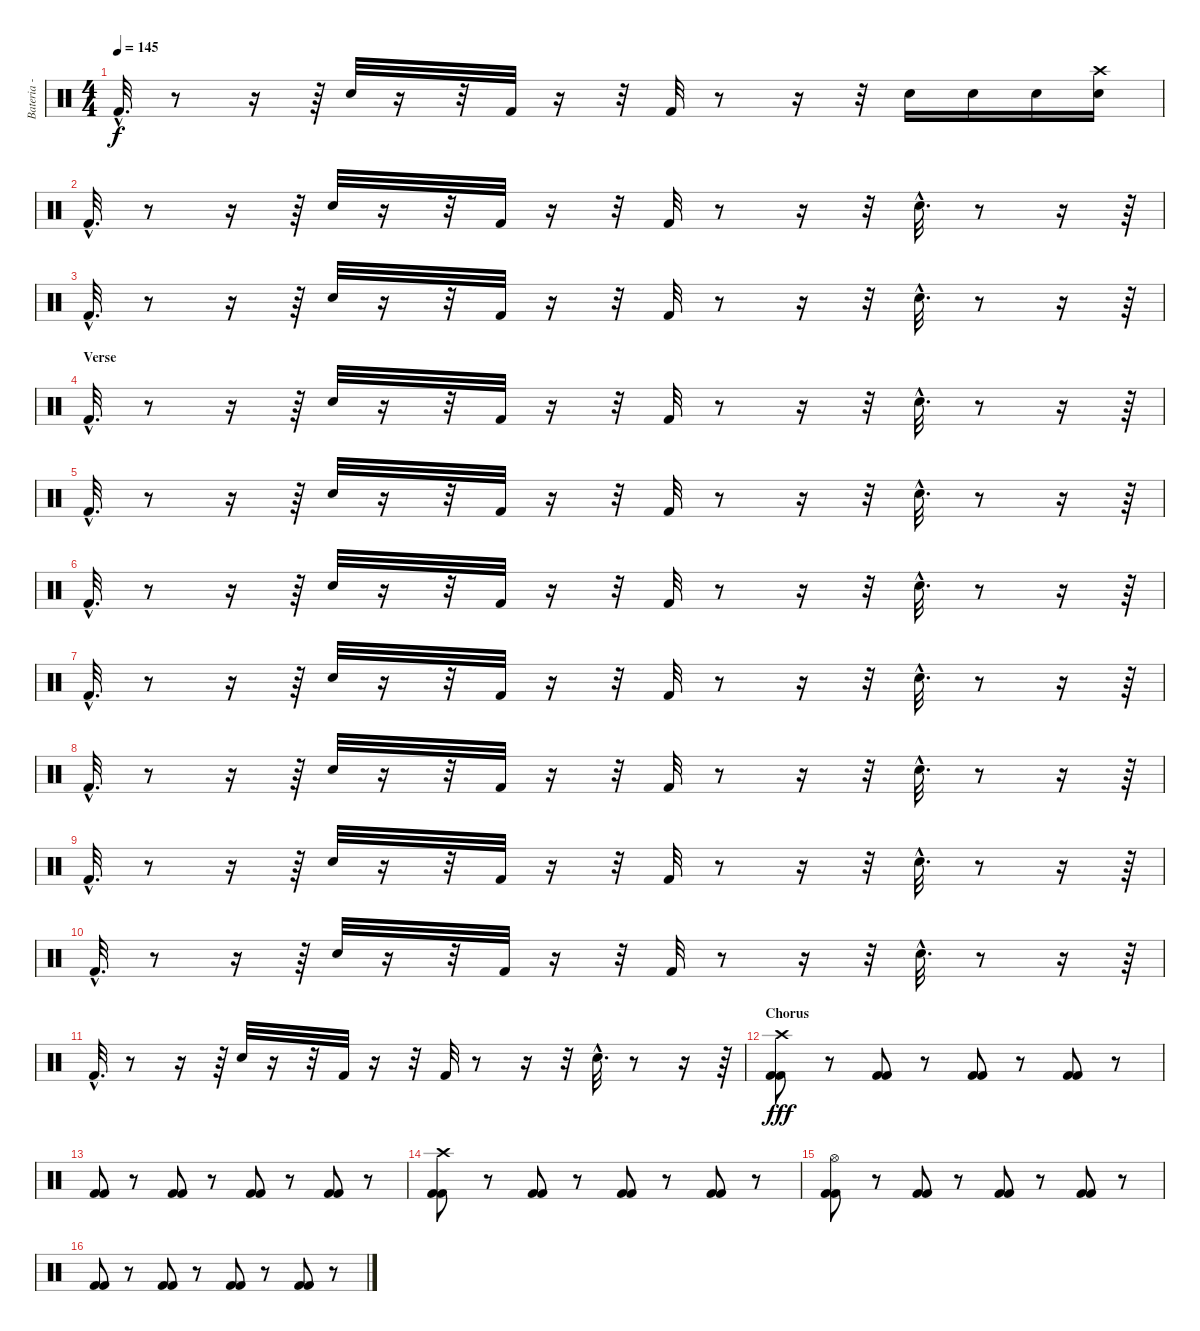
\track ("Bateria - Larzon" "Bateria - ") {instrument percussion}
\staff {score}
\articulation defaults
\ts (4 4)
\tempo 145
\clef neutral
\ks c "Kick (hit) 2"{hac}.32{d dy f}
r.8 r.16 r.64 "Snare (hit) 2".32 r.16 r.32 "Kick (hit) 2".32 r.16 r.32 "Kick (hit) 2".32 r.8 r.16 r.32 "Snare (hit) 2".16 "Snare (hit) 2".16 "Snare (hit) 2".16 ("Snare (hit) 2" "Crash high (hit)").16 |
"Kick (hit) 2"{hac}.32{d} r.8 r.16 r.64 "Snare (hit) 2".32 r.16 r.32 "Kick (hit) 2".32 r.16 r.32 "Kick (hit) 2".32 r.8 r.16 r.32 "Snare (hit) 2"{hac}.32{d} r.8 r.16 r.64 |
"Kick (hit) 2"{hac}.32{d} r.8 r.16 r.64 "Snare (hit) 2".32 r.16 r.32 "Kick (hit) 2".32 r.16 r.32 "Kick (hit) 2".32 r.8 r.16 r.32 "Snare (hit) 2"{hac}.32{d} r.8 r.16 r.64 |
\section ("" "Verse")
"Kick (hit) 2"{hac}.32{d} r.8 r.16 r.64 "Snare (hit) 2".32 r.16 r.32 "Kick (hit) 2".32 r.16 r.32 "Kick (hit) 2".32 r.8 r.16 r.32 "Snare (hit) 2"{hac}.32{d} r.8 r.16 r.64 |
"Kick (hit) 2"{hac}.32{d} r.8 r.16 r.64 "Snare (hit) 2".32 r.16 r.32 "Kick (hit) 2".32 r.16 r.32 "Kick (hit) 2".32 r.8 r.16 r.32 "Snare (hit) 2"{hac}.32{d} r.8 r.16 r.64 |
"Kick (hit) 2"{hac}.32{d} r.8 r.16 r.64 "Snare (hit) 2".32 r.16 r.32 "Kick (hit) 2".32 r.16 r.32 "Kick (hit) 2".32 r.8 r.16 r.32 "Snare (hit) 2"{hac}.32{d} r.8 r.16 r.64 |
"Kick (hit) 2"{hac}.32{d} r.8 r.16 r.64 "Snare (hit) 2".32 r.16 r.32 "Kick (hit) 2".32 r.16 r.32 "Kick (hit) 2".32 r.8 r.16 r.32 "Snare (hit) 2"{hac}.32{d} r.8 r.16 r.64 |
"Kick (hit) 2"{hac}.32{d} r.8 r.16 r.64 "Snare (hit) 2".32 r.16 r.32 "Kick (hit) 2".32 r.16 r.32 "Kick (hit) 2".32 r.8 r.16 r.32 "Snare (hit) 2"{hac}.32{d} r.8 r.16 r.64 |
"Kick (hit) 2"{hac}.32{d} r.8 r.16 r.64 "Snare (hit) 2".32 r.16 r.32 "Kick (hit) 2".32 r.16 r.32 "Kick (hit) 2".32 r.8 r.16 r.32 "Snare (hit) 2"{hac}.32{d} r.8 r.16 r.64 |
"Kick (hit) 2"{hac}.32{d} r.8 r.16 r.64 "Snare (hit) 2".32 r.16 r.32 "Kick (hit) 2".32 r.16 r.32 "Kick (hit) 2".32 r.8 r.16 r.32 "Snare (hit) 2"{hac}.32{d} r.8 r.16 r.64 |
"Kick (hit) 2"{hac}.32{d} r.8 r.16 r.64 "Snare (hit) 2".32 r.16 r.32 "Kick (hit) 2".32 r.16 r.32 "Kick (hit) 2".32 r.8 r.16 r.32 "Snare (hit) 2"{hac}.32{d} r.8 r.16 r.64 |
\section ("" "Chorus")
("Kick (hit) 2" "Kick (hit) 2" "Crash high (hit)").8{dy fff} r.8 ("Kick (hit) 2" "Kick (hit) 2").8 r.8 ("Kick (hit) 2" "Kick (hit) 2").8 r.8 ("Kick (hit) 2" "Kick (hit) 2").8 r.8 |
("Kick (hit) 2" "Kick (hit) 2").8 r.8 ("Kick (hit) 2" "Kick (hit) 2").8 r.8 ("Kick (hit) 2" "Kick (hit) 2").8 r.8 ("Kick (hit) 2" "Kick (hit) 2").8 r.8 |
("Kick (hit) 2" "Kick (hit) 2" "Crash high (hit)").8 r.8 ("Kick (hit) 2" "Kick (hit) 2").8 r.8 ("Kick (hit) 2" "Kick (hit) 2").8 r.8 ("Kick (hit) 2" "Kick (hit) 2").8 r.8 |
("Kick (hit) 2" "Kick (hit) 2" "Hi-Hat (open)").8 r.8 ("Kick (hit) 2" "Kick (hit) 2").8 r.8 ("Kick (hit) 2" "Kick (hit) 2").8 r.8 ("Kick (hit) 2" "Kick (hit) 2").8 r.8 |
("Kick (hit) 2" "Kick (hit) 2").8 r.8 ("Kick (hit) 2" "Kick (hit) 2").8 r.8 ("Kick (hit) 2" "Kick (hit) 2").8 r.8 ("Kick (hit) 2" "Kick (hit) 2").8 r.8
